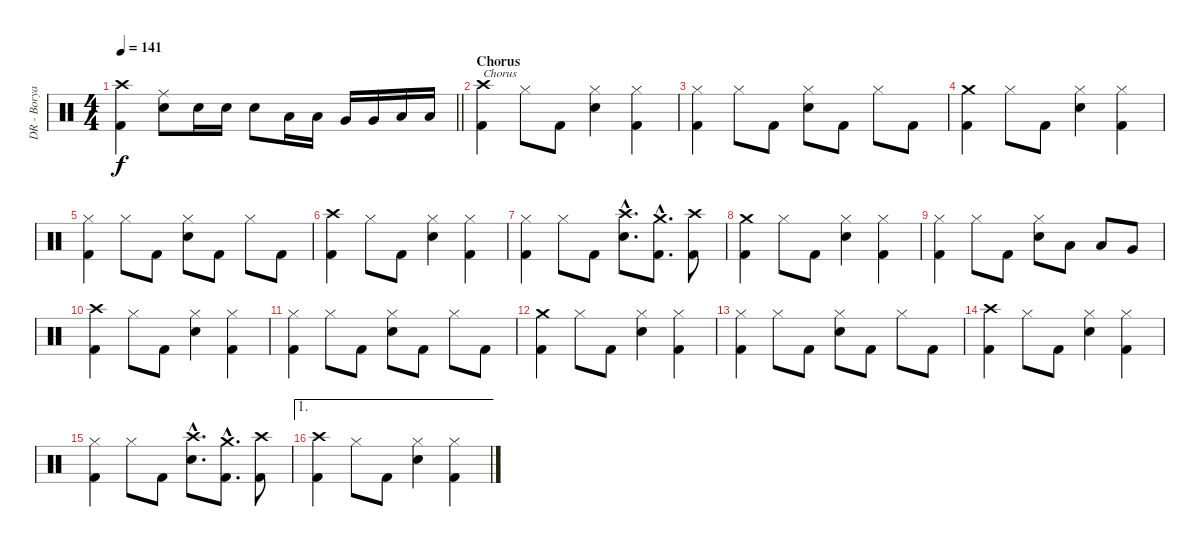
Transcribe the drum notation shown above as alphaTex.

\track ("DR - Borya" "DR - Borya") {instrument percussion}
\staff {score}
\articulation defaults
\ts (4 4)
\tempo 141
\clef neutral
\barLineRight lightlight
\ks c
("Kick (hit) 2" "Crash high (hit)").4{dy f} ("Electric Snare (hit)" "Ride (middle)").8 "Electric Snare (hit)".16 "Electric Snare (hit)".16 "Electric Snare (hit)".8 "Low Tom (hit)".16 "Low Tom (hit)".16 "Very Low Tom (hit)".16 "Very Low Tom (hit)".16 "Low Floor Tom (hit)".16 "Low Floor Tom (hit)".16 |
\section ("" "Chorus")
("Kick (hit) 2" "Crash high (hit)").4{txt "Chorus"} "Hi-Hat (closed)".8 "Kick (hit) 2".8 ("Electric Snare (hit)" "Hi-Hat (closed)").4 ("Kick (hit) 2" "Hi-Hat (closed)").4 |
("Kick (hit) 2" "Hi-Hat (closed)").4 "Hi-Hat (closed)".8 "Kick (hit) 2".8 ("Electric Snare (hit)" "Hi-Hat (closed)").8 "Kick (hit) 2".8 "Hi-Hat (closed)".8 "Kick (hit) 2".8 |
("Kick (hit) 2" "Crash medium (hit)").4 "Hi-Hat (closed)".8 "Kick (hit) 2".8 ("Electric Snare (hit)" "Hi-Hat (closed)").4 ("Kick (hit) 2" "Hi-Hat (closed)").4 |
("Kick (hit) 2" "Hi-Hat (closed)").4 "Hi-Hat (closed)".8 "Kick (hit) 2".8 ("Electric Snare (hit)" "Hi-Hat (closed)").8 "Kick (hit) 2".8 "Hi-Hat (closed)".8 "Kick (hit) 2".8 |
("Kick (hit) 2" "Crash high (hit)").4 "Hi-Hat (closed)".8 "Kick (hit) 2".8 ("Electric Snare (hit)" "Hi-Hat (closed)").4 ("Kick (hit) 2" "Hi-Hat (closed)").4 |
("Kick (hit) 2" "Hi-Hat (closed)").4 "Hi-Hat (closed)".8 "Kick (hit) 2".8 ("Electric Snare (hit)"{hac} "Crash high (hit)"{hac}).8{d} ("Kick (hit) 2"{hac} "Crash medium (hit)"{hac}).8{d} ("Kick (hit) 2" "Crash high (hit)").8 |
("Kick (hit) 2" "Crash medium (hit)").4 "Hi-Hat (closed)".8 "Kick (hit) 2".8 ("Electric Snare (hit)" "Hi-Hat (closed)").4 ("Kick (hit) 2" "Hi-Hat (closed)").4 |
("Kick (hit) 2" "Hi-Hat (closed)").4 "Hi-Hat (closed)".8 "Kick (hit) 2".8 ("Electric Snare (hit)" "Hi-Hat (closed)").8 "Low Tom (hit)".8 "Low Tom (hit)".8 "Very Low Tom (hit)".8 |
("Kick (hit) 2" "Crash high (hit)").4 "Hi-Hat (closed)".8 "Kick (hit) 2".8 ("Electric Snare (hit)" "Hi-Hat (closed)").4 ("Kick (hit) 2" "Hi-Hat (closed)").4 |
("Kick (hit) 2" "Hi-Hat (closed)").4 "Hi-Hat (closed)".8 "Kick (hit) 2".8 ("Electric Snare (hit)" "Hi-Hat (closed)").8 "Kick (hit) 2".8 "Hi-Hat (closed)".8 "Kick (hit) 2".8 |
("Kick (hit) 2" "Crash medium (hit)").4 "Hi-Hat (closed)".8 "Kick (hit) 2".8 ("Electric Snare (hit)" "Hi-Hat (closed)").4 ("Kick (hit) 2" "Hi-Hat (closed)").4 |
("Kick (hit) 2" "Hi-Hat (closed)").4 "Hi-Hat (closed)".8 "Kick (hit) 2".8 ("Electric Snare (hit)" "Hi-Hat (closed)").8 "Kick (hit) 2".8 "Hi-Hat (closed)".8 "Kick (hit) 2".8 |
("Kick (hit) 2" "Crash high (hit)").4 "Hi-Hat (closed)".8 "Kick (hit) 2".8 ("Electric Snare (hit)" "Hi-Hat (closed)").4 ("Kick (hit) 2" "Hi-Hat (closed)").4 |
("Kick (hit) 2" "Hi-Hat (closed)").4 "Hi-Hat (closed)".8 "Kick (hit) 2".8 ("Electric Snare (hit)"{hac} "Crash high (hit)"{hac}).8{d} ("Kick (hit) 2"{hac} "Crash medium (hit)"{hac}).8{d} ("Kick (hit) 2" "Crash high (hit)").8 |
\ae 1
("Kick (hit) 2" "Crash high (hit)").4 "Hi-Hat (closed)".8 "Kick (hit) 2".8 ("Electric Snare (hit)" "Hi-Hat (closed)").4 ("Kick (hit) 2" "Hi-Hat (closed)").4
